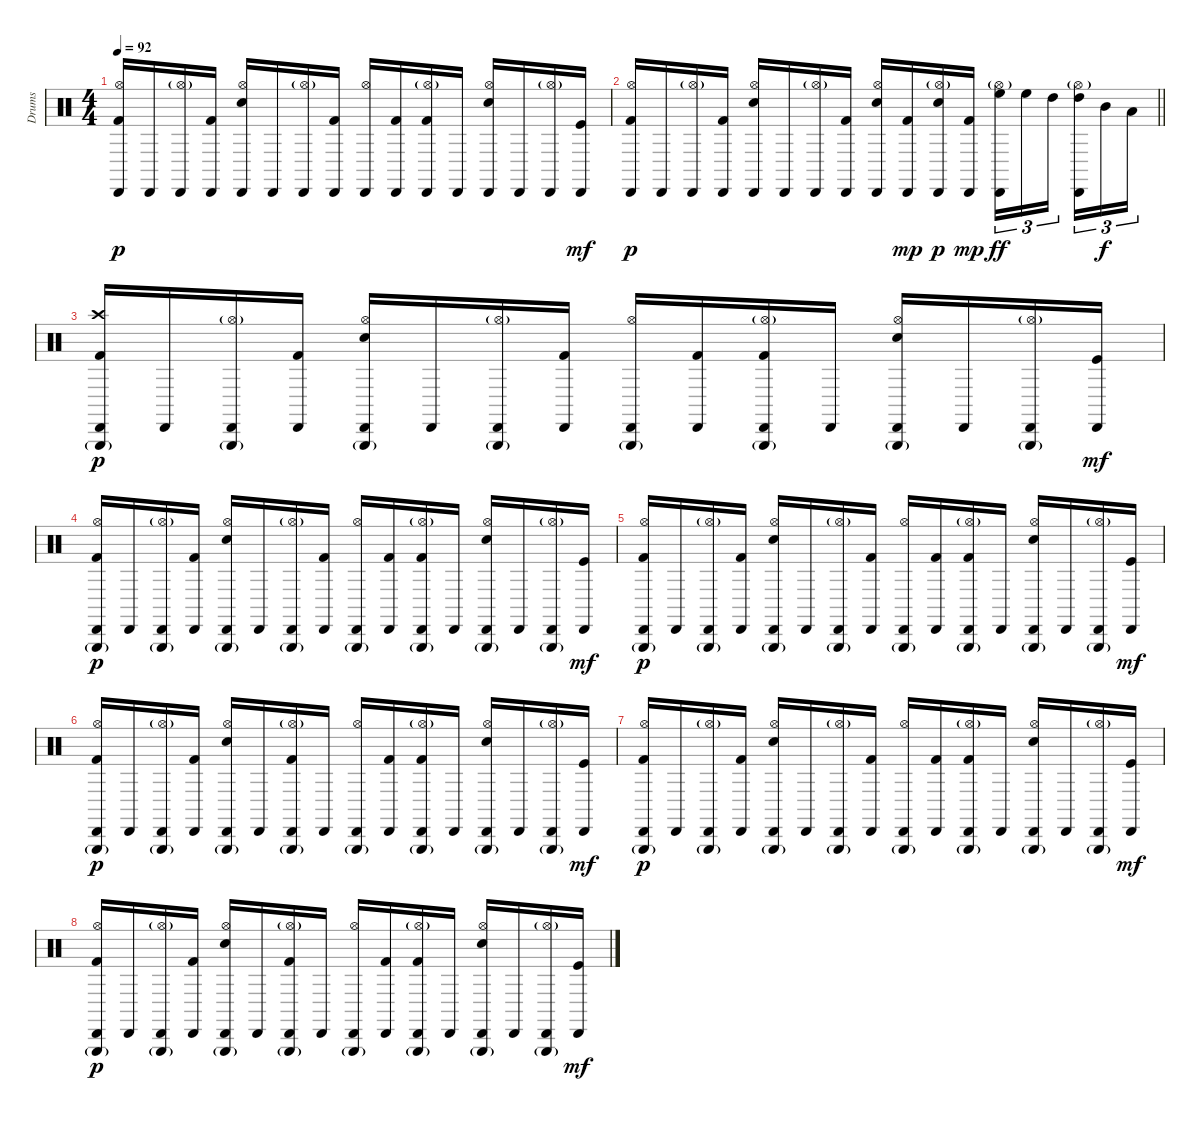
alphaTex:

\track ("Drums" "Drums") {instrument percussion}
\staff {score}
\articulation defaults
\ts (4 4)
\tempo 92
\clef neutral
\ks c
("Hi-Hat (open)" "Cabasa (hit)" "Kick (hit) 2").16{dy p} "Cabasa (hit)".16 ("Hi-Hat (open)"{g} "Cabasa (hit)").16 ("Cabasa (hit)" "Kick (hit) 2").16 ("Hi-Hat (open)" "Cabasa (hit)" "Electric Snare (hit)").16 "Cabasa (hit)".16 ("Hi-Hat (open)"{g} "Cabasa (hit)").16 ("Cabasa (hit)" "Kick (hit) 2").16 ("Hi-Hat (open)" "Cabasa (hit)").16 ("Cabasa (hit)" "Kick (hit) 2").16 ("Hi-Hat (open)"{g} "Cabasa (hit)" "Kick (hit) 2").16 "Cabasa (hit)".16 ("Hi-Hat (open)" "Cabasa (hit)" "Electric Snare (hit)").16 "Cabasa (hit)".16 ("Hi-Hat (open)"{g} "Cabasa (hit)").16 ("Cabasa (hit)" "Kick (hit)").16{dy mf} |
\barLineRight lightlight
("Hi-Hat (open)" "Cabasa (hit)" "Kick (hit) 2").16{dy p} "Cabasa (hit)".16 ("Hi-Hat (open)"{g} "Cabasa (hit)").16 ("Cabasa (hit)" "Kick (hit) 2").16 ("Hi-Hat (open)" "Cabasa (hit)" "Electric Snare (hit)").16 "Cabasa (hit)".16 ("Hi-Hat (open)"{g} "Cabasa (hit)").16 ("Cabasa (hit)" "Kick (hit) 2").16 ("Hi-Hat (open)" "Cabasa (hit)" "Electric Snare (hit)").16 ("Cabasa (hit)" "Kick (hit) 2").16{dy mp} ("Hi-Hat (open)"{g} "Cabasa (hit)" "Electric Snare (hit)").16{dy p} ("Cabasa (hit)" "Kick (hit) 2").16{dy mp} ("Hi-Hat (open)"{g} "Cabasa (hit)" "High Floor Tom (hit)").16{tu (3 2) dy ff} "High Floor Tom (hit)".16{tu (3 2)} "High Tom (hit)".16{tu (3 2)} ("Hi-Hat (open)"{g} "Cabasa (hit)" "High Tom (hit)").16{tu (3 2)} "Mid Tom (hit)".16{tu (3 2) dy f} "Low Tom (hit)".16{tu (3 2)} |
("Crash high (hit)" "Triangle (hit)"{g} "Cabasa (hit)" "Kick (hit) 2").16{dy p} "Cabasa (hit)".16 ("Triangle (hit)"{g} "Hi-Hat (open)"{g} "Cabasa (hit)").16 ("Cabasa (hit)" "Kick (hit) 2").16 ("Triangle (hit)"{g} "Hi-Hat (open)" "Cabasa (hit)" "Electric Snare (hit)").16 "Cabasa (hit)".16 ("Triangle (hit)"{g} "Hi-Hat (open)"{g} "Cabasa (hit)").16 ("Cabasa (hit)" "Kick (hit) 2").16 ("Triangle (hit)"{g} "Hi-Hat (open)" "Cabasa (hit)").16 ("Cabasa (hit)" "Kick (hit) 2").16 ("Triangle (hit)"{g} "Hi-Hat (open)"{g} "Cabasa (hit)" "Kick (hit) 2").16 "Cabasa (hit)".16 ("Triangle (hit)"{g} "Hi-Hat (open)" "Cabasa (hit)" "Electric Snare (hit)").16 "Cabasa (hit)".16 ("Triangle (hit)"{g} "Hi-Hat (open)"{g} "Cabasa (hit)").16 ("Cabasa (hit)" "Kick (hit)").16{dy mf} |
("Triangle (hit)"{g} "Hi-Hat (open)" "Cabasa (hit)" "Kick (hit) 2").16{dy p} "Cabasa (hit)".16 ("Triangle (hit)"{g} "Hi-Hat (open)"{g} "Cabasa (hit)").16 ("Cabasa (hit)" "Kick (hit) 2").16 ("Triangle (hit)"{g} "Hi-Hat (open)" "Cabasa (hit)" "Electric Snare (hit)").16 "Cabasa (hit)".16 ("Triangle (hit)"{g} "Hi-Hat (open)"{g} "Cabasa (hit)").16 ("Cabasa (hit)" "Kick (hit) 2").16 ("Triangle (hit)"{g} "Hi-Hat (open)" "Cabasa (hit)").16 ("Cabasa (hit)" "Kick (hit) 2").16 ("Triangle (hit)"{g} "Hi-Hat (open)"{g} "Cabasa (hit)" "Kick (hit) 2").16 "Cabasa (hit)".16 ("Triangle (hit)"{g} "Hi-Hat (open)" "Cabasa (hit)" "Electric Snare (hit)").16 "Cabasa (hit)".16 ("Triangle (hit)"{g} "Hi-Hat (open)"{g} "Cabasa (hit)").16 ("Cabasa (hit)" "Kick (hit)").16{dy mf} |
("Triangle (hit)"{g} "Hi-Hat (open)" "Cabasa (hit)" "Kick (hit) 2").16{dy p} "Cabasa (hit)".16 ("Triangle (hit)"{g} "Hi-Hat (open)"{g} "Cabasa (hit)").16 ("Cabasa (hit)" "Kick (hit) 2").16 ("Triangle (hit)"{g} "Hi-Hat (open)" "Cabasa (hit)" "Electric Snare (hit)").16 "Cabasa (hit)".16 ("Triangle (hit)"{g} "Hi-Hat (open)"{g} "Cabasa (hit)").16 ("Cabasa (hit)" "Kick (hit) 2").16 ("Triangle (hit)"{g} "Hi-Hat (open)" "Cabasa (hit)").16 ("Cabasa (hit)" "Kick (hit) 2").16 ("Triangle (hit)"{g} "Hi-Hat (open)"{g} "Cabasa (hit)" "Kick (hit) 2").16 "Cabasa (hit)".16 ("Triangle (hit)"{g} "Hi-Hat (open)" "Cabasa (hit)" "Electric Snare (hit)").16 "Cabasa (hit)".16 ("Triangle (hit)"{g} "Hi-Hat (open)"{g} "Cabasa (hit)").16 ("Cabasa (hit)" "Kick (hit)").16{dy mf} |
("Triangle (hit)"{g} "Hi-Hat (open)" "Cabasa (hit)" "Kick (hit) 2").16{dy p} "Cabasa (hit)".16 ("Triangle (hit)"{g} "Hi-Hat (open)"{g} "Cabasa (hit)").16 ("Cabasa (hit)" "Kick (hit) 2").16 ("Triangle (hit)"{g} "Hi-Hat (open)" "Cabasa (hit)" "Electric Snare (hit)").16 "Cabasa (hit)".16 ("Triangle (hit)"{g} "Hi-Hat (open)"{g} "Cabasa (hit)" "Kick (hit) 2").16 "Cabasa (hit)".16 ("Triangle (hit)"{g} "Hi-Hat (open)" "Cabasa (hit)").16 ("Cabasa (hit)" "Kick (hit) 2").16 ("Triangle (hit)"{g} "Hi-Hat (open)"{g} "Cabasa (hit)" "Kick (hit) 2").16 "Cabasa (hit)".16 ("Triangle (hit)"{g} "Hi-Hat (open)" "Cabasa (hit)" "Electric Snare (hit)").16 "Cabasa (hit)".16 ("Triangle (hit)"{g} "Hi-Hat (open)"{g} "Cabasa (hit)").16 ("Cabasa (hit)" "Kick (hit)").16{dy mf} |
("Triangle (hit)"{g} "Hi-Hat (open)" "Cabasa (hit)" "Kick (hit) 2").16{dy p} "Cabasa (hit)".16 ("Triangle (hit)"{g} "Hi-Hat (open)"{g} "Cabasa (hit)").16 ("Cabasa (hit)" "Kick (hit) 2").16 ("Triangle (hit)"{g} "Hi-Hat (open)" "Cabasa (hit)" "Electric Snare (hit)").16 "Cabasa (hit)".16 ("Triangle (hit)"{g} "Hi-Hat (open)"{g} "Cabasa (hit)").16 ("Cabasa (hit)" "Kick (hit) 2").16 ("Triangle (hit)"{g} "Hi-Hat (open)" "Cabasa (hit)").16 ("Cabasa (hit)" "Kick (hit) 2").16 ("Triangle (hit)"{g} "Hi-Hat (open)"{g} "Cabasa (hit)" "Kick (hit) 2").16 "Cabasa (hit)".16 ("Triangle (hit)"{g} "Hi-Hat (open)" "Cabasa (hit)" "Electric Snare (hit)").16 "Cabasa (hit)".16 ("Triangle (hit)"{g} "Hi-Hat (open)"{g} "Cabasa (hit)").16 ("Cabasa (hit)" "Kick (hit)").16{dy mf} |
("Triangle (hit)"{g} "Hi-Hat (open)" "Cabasa (hit)" "Kick (hit) 2").16{dy p} "Cabasa (hit)".16 ("Triangle (hit)"{g} "Hi-Hat (open)"{g} "Cabasa (hit)").16 ("Cabasa (hit)" "Kick (hit) 2").16 ("Triangle (hit)"{g} "Hi-Hat (open)" "Cabasa (hit)" "Electric Snare (hit)").16 "Cabasa (hit)".16 ("Triangle (hit)"{g} "Hi-Hat (open)"{g} "Cabasa (hit)" "Kick (hit) 2").16 "Cabasa (hit)".16 ("Triangle (hit)"{g} "Hi-Hat (open)" "Cabasa (hit)").16 ("Cabasa (hit)" "Kick (hit) 2").16 ("Triangle (hit)"{g} "Hi-Hat (open)"{g} "Cabasa (hit)" "Kick (hit) 2").16 "Cabasa (hit)".16 ("Triangle (hit)"{g} "Hi-Hat (open)" "Cabasa (hit)" "Electric Snare (hit)").16 "Cabasa (hit)".16 ("Triangle (hit)"{g} "Hi-Hat (open)"{g} "Cabasa (hit)").16 ("Cabasa (hit)" "Kick (hit)").16{dy mf}
